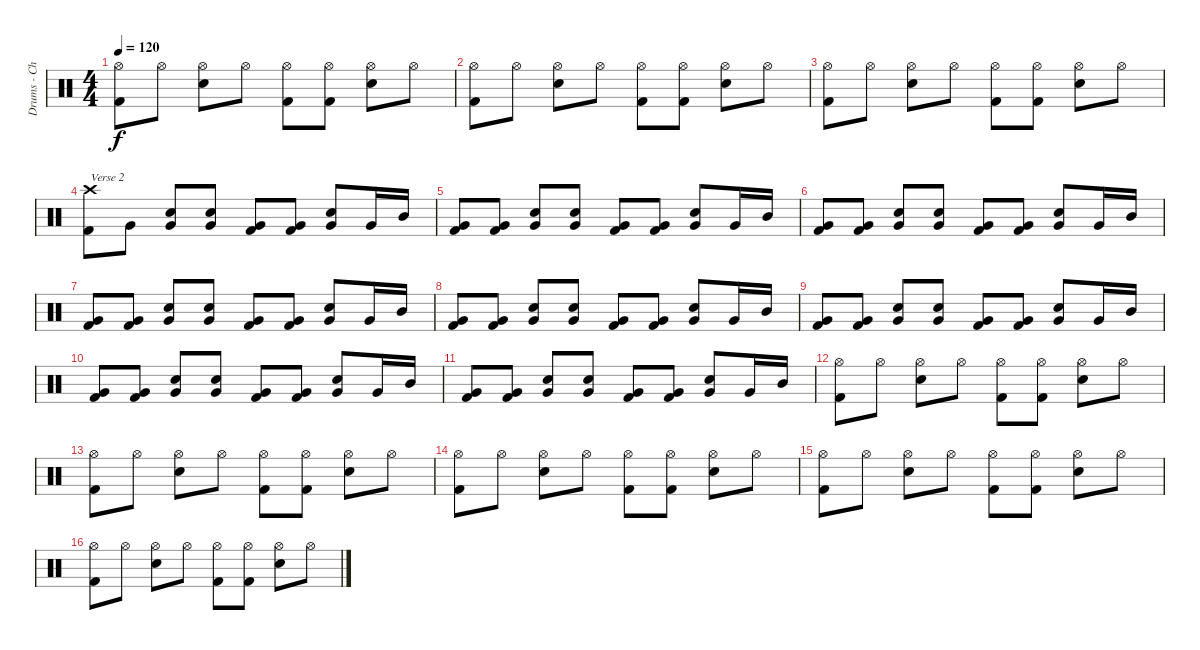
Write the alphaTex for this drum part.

\track ("Drums - Chris" "Drums - Ch") {instrument percussion}
\staff {score}
\articulation defaults
\ts (4 4)
\tempo 120
\clef neutral
\ks c
("Hi-Hat (open)" "Kick (hit) 2").8{dy f} "Hi-Hat (open)".8 ("Hi-Hat (open)" "Snare (hit) 2").8 "Hi-Hat (open)".8 ("Hi-Hat (open)" "Kick (hit) 2").8 ("Hi-Hat (open)" "Kick (hit) 2").8 ("Hi-Hat (open)" "Snare (hit) 2").8 "Hi-Hat (open)".8 |
("Hi-Hat (open)" "Kick (hit) 2").8 "Hi-Hat (open)".8 ("Hi-Hat (open)" "Snare (hit) 2").8 "Hi-Hat (open)".8 ("Hi-Hat (open)" "Kick (hit) 2").8 ("Hi-Hat (open)" "Kick (hit) 2").8 ("Hi-Hat (open)" "Snare (hit) 2").8 "Hi-Hat (open)".8 |
("Hi-Hat (open)" "Kick (hit) 2").8 "Hi-Hat (open)".8 ("Hi-Hat (open)" "Snare (hit) 2").8 "Hi-Hat (open)".8 ("Hi-Hat (open)" "Kick (hit) 2").8 ("Hi-Hat (open)" "Kick (hit) 2").8 ("Hi-Hat (open)" "Snare (hit) 2").8 "Hi-Hat (open)".8 |
("Crash high (hit)" "Kick (hit) 2").8{txt "Verse 2"} "Very Low Tom (hit)".8 ("Snare (hit) 2" "Very Low Tom (hit)").8 ("Snare (hit) 2" "Very Low Tom (hit)").8 ("Very Low Tom (hit)" "Kick (hit) 2").8 ("Very Low Tom (hit)" "Kick (hit) 2").8 ("Snare (hit) 2" "Very Low Tom (hit)").8 "Very Low Tom (hit)".16 "Mid Tom (hit)".16 |
("Very Low Tom (hit)" "Kick (hit) 2").8 ("Very Low Tom (hit)" "Kick (hit) 2").8 ("Snare (hit) 2" "Very Low Tom (hit)").8 ("Snare (hit) 2" "Very Low Tom (hit)").8 ("Very Low Tom (hit)" "Kick (hit) 2").8 ("Very Low Tom (hit)" "Kick (hit) 2").8 ("Snare (hit) 2" "Very Low Tom (hit)").8 "Very Low Tom (hit)".16 "Mid Tom (hit)".16 |
("Very Low Tom (hit)" "Kick (hit) 2").8 ("Very Low Tom (hit)" "Kick (hit) 2").8 ("Snare (hit) 2" "Very Low Tom (hit)").8 ("Snare (hit) 2" "Very Low Tom (hit)").8 ("Very Low Tom (hit)" "Kick (hit) 2").8 ("Very Low Tom (hit)" "Kick (hit) 2").8 ("Snare (hit) 2" "Very Low Tom (hit)").8 "Very Low Tom (hit)".16 "Mid Tom (hit)".16 |
("Very Low Tom (hit)" "Kick (hit) 2").8 ("Very Low Tom (hit)" "Kick (hit) 2").8 ("Snare (hit) 2" "Very Low Tom (hit)").8 ("Snare (hit) 2" "Very Low Tom (hit)").8 ("Very Low Tom (hit)" "Kick (hit) 2").8 ("Very Low Tom (hit)" "Kick (hit) 2").8 ("Snare (hit) 2" "Very Low Tom (hit)").8 "Very Low Tom (hit)".16 "Mid Tom (hit)".16 |
("Very Low Tom (hit)" "Kick (hit) 2").8 ("Very Low Tom (hit)" "Kick (hit) 2").8 ("Snare (hit) 2" "Very Low Tom (hit)").8 ("Snare (hit) 2" "Very Low Tom (hit)").8 ("Very Low Tom (hit)" "Kick (hit) 2").8 ("Very Low Tom (hit)" "Kick (hit) 2").8 ("Snare (hit) 2" "Very Low Tom (hit)").8 "Very Low Tom (hit)".16 "Mid Tom (hit)".16 |
("Very Low Tom (hit)" "Kick (hit) 2").8 ("Very Low Tom (hit)" "Kick (hit) 2").8 ("Snare (hit) 2" "Very Low Tom (hit)").8 ("Snare (hit) 2" "Very Low Tom (hit)").8 ("Very Low Tom (hit)" "Kick (hit) 2").8 ("Very Low Tom (hit)" "Kick (hit) 2").8 ("Snare (hit) 2" "Very Low Tom (hit)").8 "Very Low Tom (hit)".16 "Mid Tom (hit)".16 |
("Very Low Tom (hit)" "Kick (hit) 2").8 ("Very Low Tom (hit)" "Kick (hit) 2").8 ("Snare (hit) 2" "Very Low Tom (hit)").8 ("Snare (hit) 2" "Very Low Tom (hit)").8 ("Very Low Tom (hit)" "Kick (hit) 2").8 ("Very Low Tom (hit)" "Kick (hit) 2").8 ("Snare (hit) 2" "Very Low Tom (hit)").8 "Very Low Tom (hit)".16 "Mid Tom (hit)".16 |
("Very Low Tom (hit)" "Kick (hit) 2").8 ("Very Low Tom (hit)" "Kick (hit) 2").8 ("Snare (hit) 2" "Very Low Tom (hit)").8 ("Snare (hit) 2" "Very Low Tom (hit)").8 ("Very Low Tom (hit)" "Kick (hit) 2").8 ("Very Low Tom (hit)" "Kick (hit) 2").8 ("Snare (hit) 2" "Very Low Tom (hit)").8 "Very Low Tom (hit)".16 "Mid Tom (hit)".16 |
("Hi-Hat (open)" "Kick (hit) 2").8 "Hi-Hat (open)".8 ("Hi-Hat (open)" "Snare (hit) 2").8 "Hi-Hat (open)".8 ("Hi-Hat (open)" "Kick (hit) 2").8 ("Hi-Hat (open)" "Kick (hit) 2").8 ("Hi-Hat (open)" "Snare (hit) 2").8 "Hi-Hat (open)".8 |
("Hi-Hat (open)" "Kick (hit) 2").8 "Hi-Hat (open)".8 ("Hi-Hat (open)" "Snare (hit) 2").8 "Hi-Hat (open)".8 ("Hi-Hat (open)" "Kick (hit) 2").8 ("Hi-Hat (open)" "Kick (hit) 2").8 ("Hi-Hat (open)" "Snare (hit) 2").8 "Hi-Hat (open)".8 |
("Hi-Hat (open)" "Kick (hit) 2").8 "Hi-Hat (open)".8 ("Hi-Hat (open)" "Snare (hit) 2").8 "Hi-Hat (open)".8 ("Hi-Hat (open)" "Kick (hit) 2").8 ("Hi-Hat (open)" "Kick (hit) 2").8 ("Hi-Hat (open)" "Snare (hit) 2").8 "Hi-Hat (open)".8 |
("Hi-Hat (open)" "Kick (hit) 2").8 "Hi-Hat (open)".8 ("Hi-Hat (open)" "Snare (hit) 2").8 "Hi-Hat (open)".8 ("Hi-Hat (open)" "Kick (hit) 2").8 ("Hi-Hat (open)" "Kick (hit) 2").8 ("Hi-Hat (open)" "Snare (hit) 2").8 "Hi-Hat (open)".8 |
("Hi-Hat (open)" "Kick (hit) 2").8 "Hi-Hat (open)".8 ("Hi-Hat (open)" "Snare (hit) 2").8 "Hi-Hat (open)".8 ("Hi-Hat (open)" "Kick (hit) 2").8 ("Hi-Hat (open)" "Kick (hit) 2").8 ("Hi-Hat (open)" "Snare (hit) 2").8 "Hi-Hat (open)".8
